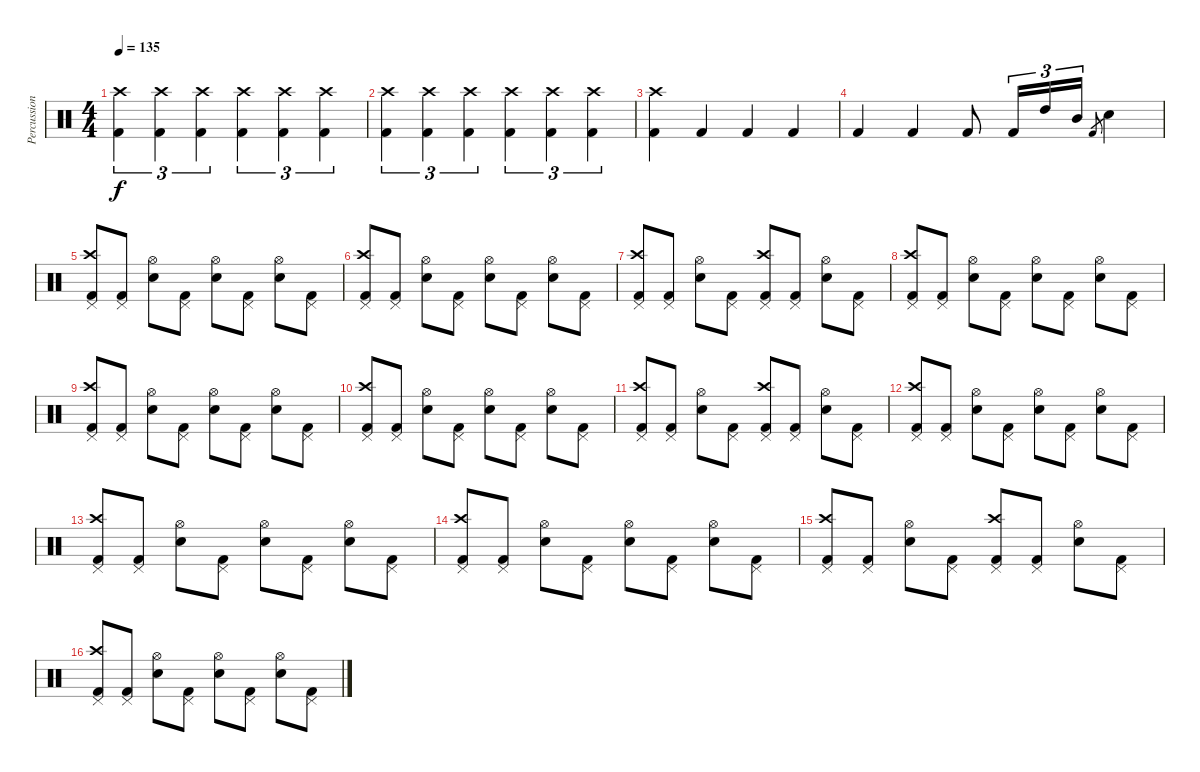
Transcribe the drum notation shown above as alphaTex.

\track ("Percussion" "Percussion") {instrument percussion}
\staff {score}
\articulation defaults
\ts (4 4)
\tempo 135
\clef neutral
\ks c
("Kick (hit) 2" "Crash high (hit)").4{tu (3 2) dy f} ("Kick (hit) 2" "Crash high (hit)").4{tu (3 2)} ("Kick (hit) 2" "Crash high (hit)").4{tu (3 2)} ("Kick (hit) 2" "Crash high (hit)").4{tu (3 2)} ("Kick (hit) 2" "Crash high (hit)").4{tu (3 2)} ("Kick (hit) 2" "Crash high (hit)").4{tu (3 2)} |
("Kick (hit) 2" "Crash high (hit)").4{tu (3 2)} ("Kick (hit) 2" "Crash high (hit)").4{tu (3 2)} ("Kick (hit) 2" "Crash high (hit)").4{tu (3 2)} ("Kick (hit) 2" "Crash high (hit)").4{tu (3 2)} ("Kick (hit) 2" "Crash high (hit)").4{tu (3 2)} ("Kick (hit) 2" "Crash high (hit)").4{tu (3 2)} |
("Kick (hit) 2" "Crash high (hit)").4 "Kick (hit) 2".4 "Kick (hit) 2".4 "Kick (hit) 2".4 |
"Kick (hit) 2".4 "Kick (hit) 2".4 "Kick (hit) 2".8 "Kick (hit) 2".16{tu (3 2)} "High Tom (hit)".16{tu (3 2)} "Mid Tom (hit)".16{tu (3 2)} "Kick (hit) 2".8{gr} "Electric Snare (hit)".4 |
("Pedal Hi-Hat (hit)" "Kick (hit) 2" "Crash high (hit)").8 ("Pedal Hi-Hat (hit)" "Kick (hit) 2").8 ("Hi-Hat (open)" "Electric Snare (hit)").8 ("Pedal Hi-Hat (hit)" "Kick (hit) 2").8 ("Hi-Hat (open)" "Electric Snare (hit)").8 ("Pedal Hi-Hat (hit)" "Kick (hit) 2").8 ("Hi-Hat (open)" "Electric Snare (hit)").8 ("Pedal Hi-Hat (hit)" "Kick (hit) 2").8 |
("Pedal Hi-Hat (hit)" "Kick (hit) 2" "Crash high (hit)").8 ("Pedal Hi-Hat (hit)" "Kick (hit) 2").8 ("Hi-Hat (open)" "Electric Snare (hit)").8 ("Pedal Hi-Hat (hit)" "Kick (hit) 2").8 ("Hi-Hat (open)" "Electric Snare (hit)").8 ("Pedal Hi-Hat (hit)" "Kick (hit) 2").8 ("Hi-Hat (open)" "Electric Snare (hit)").8 ("Pedal Hi-Hat (hit)" "Kick (hit) 2").8 |
("Pedal Hi-Hat (hit)" "Kick (hit) 2" "Crash high (hit)").8 ("Pedal Hi-Hat (hit)" "Kick (hit) 2").8 ("Hi-Hat (open)" "Electric Snare (hit)").8 ("Pedal Hi-Hat (hit)" "Kick (hit) 2").8 ("Pedal Hi-Hat (hit)" "Kick (hit) 2" "Crash high (hit)").8 ("Pedal Hi-Hat (hit)" "Kick (hit) 2").8 ("Hi-Hat (open)" "Electric Snare (hit)").8 ("Pedal Hi-Hat (hit)" "Kick (hit) 2").8 |
("Pedal Hi-Hat (hit)" "Kick (hit) 2" "Crash high (hit)").8 ("Pedal Hi-Hat (hit)" "Kick (hit) 2").8 ("Hi-Hat (open)" "Electric Snare (hit)").8 ("Pedal Hi-Hat (hit)" "Kick (hit) 2").8 ("Hi-Hat (open)" "Electric Snare (hit)").8 ("Pedal Hi-Hat (hit)" "Kick (hit) 2").8 ("Hi-Hat (open)" "Electric Snare (hit)").8 ("Pedal Hi-Hat (hit)" "Kick (hit) 2").8 |
("Pedal Hi-Hat (hit)" "Kick (hit) 2" "Crash high (hit)").8 ("Pedal Hi-Hat (hit)" "Kick (hit) 2").8 ("Hi-Hat (open)" "Electric Snare (hit)").8 ("Pedal Hi-Hat (hit)" "Kick (hit) 2").8 ("Hi-Hat (open)" "Electric Snare (hit)").8 ("Pedal Hi-Hat (hit)" "Kick (hit) 2").8 ("Hi-Hat (open)" "Electric Snare (hit)").8 ("Pedal Hi-Hat (hit)" "Kick (hit) 2").8 |
("Pedal Hi-Hat (hit)" "Kick (hit) 2" "Crash high (hit)").8 ("Pedal Hi-Hat (hit)" "Kick (hit) 2").8 ("Hi-Hat (open)" "Electric Snare (hit)").8 ("Pedal Hi-Hat (hit)" "Kick (hit) 2").8 ("Hi-Hat (open)" "Electric Snare (hit)").8 ("Pedal Hi-Hat (hit)" "Kick (hit) 2").8 ("Hi-Hat (open)" "Electric Snare (hit)").8 ("Pedal Hi-Hat (hit)" "Kick (hit) 2").8 |
("Pedal Hi-Hat (hit)" "Kick (hit) 2" "Crash high (hit)").8 ("Pedal Hi-Hat (hit)" "Kick (hit) 2").8 ("Hi-Hat (open)" "Electric Snare (hit)").8 ("Pedal Hi-Hat (hit)" "Kick (hit) 2").8 ("Pedal Hi-Hat (hit)" "Kick (hit) 2" "Crash high (hit)").8 ("Pedal Hi-Hat (hit)" "Kick (hit) 2").8 ("Hi-Hat (open)" "Electric Snare (hit)").8 ("Pedal Hi-Hat (hit)" "Kick (hit) 2").8 |
("Pedal Hi-Hat (hit)" "Kick (hit) 2" "Crash high (hit)").8 ("Pedal Hi-Hat (hit)" "Kick (hit) 2").8 ("Hi-Hat (open)" "Electric Snare (hit)").8 ("Pedal Hi-Hat (hit)" "Kick (hit) 2").8 ("Hi-Hat (open)" "Electric Snare (hit)").8 ("Pedal Hi-Hat (hit)" "Kick (hit) 2").8 ("Hi-Hat (open)" "Electric Snare (hit)").8 ("Pedal Hi-Hat (hit)" "Kick (hit) 2").8 |
("Pedal Hi-Hat (hit)" "Kick (hit) 2" "Crash high (hit)").8 ("Pedal Hi-Hat (hit)" "Kick (hit) 2").8 ("Hi-Hat (open)" "Electric Snare (hit)").8 ("Pedal Hi-Hat (hit)" "Kick (hit) 2").8 ("Hi-Hat (open)" "Electric Snare (hit)").8 ("Pedal Hi-Hat (hit)" "Kick (hit) 2").8 ("Hi-Hat (open)" "Electric Snare (hit)").8 ("Pedal Hi-Hat (hit)" "Kick (hit) 2").8 |
("Pedal Hi-Hat (hit)" "Kick (hit) 2" "Crash high (hit)").8 ("Pedal Hi-Hat (hit)" "Kick (hit) 2").8 ("Hi-Hat (open)" "Electric Snare (hit)").8 ("Pedal Hi-Hat (hit)" "Kick (hit) 2").8 ("Hi-Hat (open)" "Electric Snare (hit)").8 ("Pedal Hi-Hat (hit)" "Kick (hit) 2").8 ("Hi-Hat (open)" "Electric Snare (hit)").8 ("Pedal Hi-Hat (hit)" "Kick (hit) 2").8 |
("Pedal Hi-Hat (hit)" "Kick (hit) 2" "Crash high (hit)").8 ("Pedal Hi-Hat (hit)" "Kick (hit) 2").8 ("Hi-Hat (open)" "Electric Snare (hit)").8 ("Pedal Hi-Hat (hit)" "Kick (hit) 2").8 ("Pedal Hi-Hat (hit)" "Kick (hit) 2" "Crash high (hit)").8 ("Pedal Hi-Hat (hit)" "Kick (hit) 2").8 ("Hi-Hat (open)" "Electric Snare (hit)").8 ("Pedal Hi-Hat (hit)" "Kick (hit) 2").8 |
("Pedal Hi-Hat (hit)" "Kick (hit) 2" "Crash high (hit)").8 ("Pedal Hi-Hat (hit)" "Kick (hit) 2").8 ("Hi-Hat (open)" "Electric Snare (hit)").8 ("Pedal Hi-Hat (hit)" "Kick (hit) 2").8 ("Hi-Hat (open)" "Electric Snare (hit)").8 ("Pedal Hi-Hat (hit)" "Kick (hit) 2").8 ("Hi-Hat (open)" "Electric Snare (hit)").8 ("Pedal Hi-Hat (hit)" "Kick (hit) 2").8
